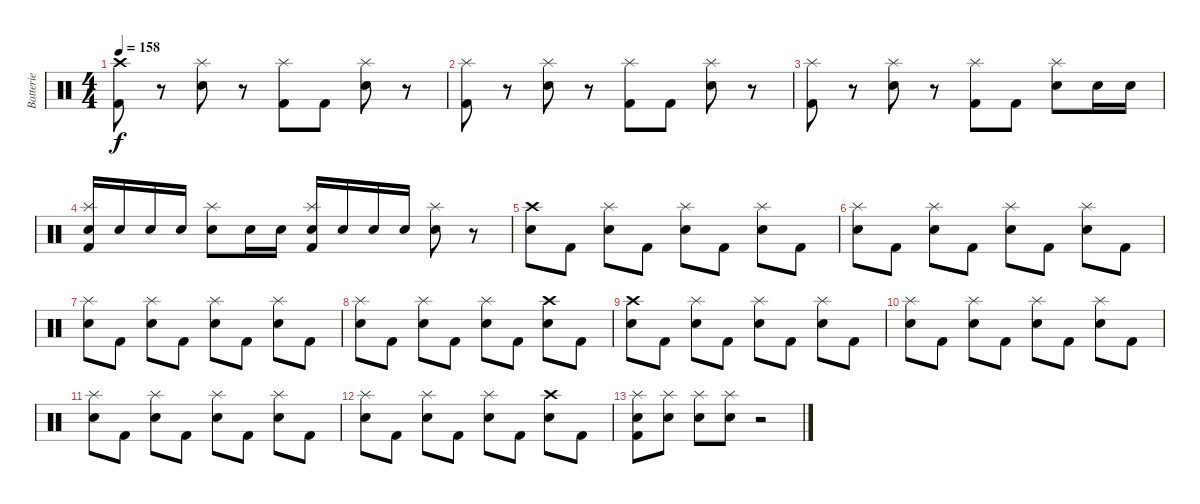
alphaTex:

\track ("Batterie" "Batterie") {instrument percussion}
\staff {score}
\articulation defaults
\ts (4 4)
\tempo 158
\clef neutral
\ks c
("Crash high (hit)" "Kick (hit) 2").8{dy f} r.8 ("Splash (hit)" "Electric Snare (hit)").8 r.8 ("Splash (hit)" "Kick (hit) 2").8 "Kick (hit) 2".8 ("Splash (hit)" "Electric Snare (hit)").8 r.8 |
("Splash (hit)" "Kick (hit) 2").8 r.8 ("Splash (hit)" "Electric Snare (hit)").8 r.8 ("Splash (hit)" "Kick (hit) 2").8 "Kick (hit) 2".8 ("Splash (hit)" "Electric Snare (hit)").8 r.8 |
("Splash (hit)" "Kick (hit) 2").8 r.8 ("Splash (hit)" "Electric Snare (hit)").8 r.8 ("Splash (hit)" "Kick (hit) 2").8 "Kick (hit) 2".8 ("Splash (hit)" "Electric Snare (hit)").8 "Electric Snare (hit)".16 "Electric Snare (hit)".16 |
("Splash (hit)" "Electric Snare (hit)" "Kick (hit) 2").16 "Electric Snare (hit)".16 "Electric Snare (hit)".16 "Electric Snare (hit)".16 ("Splash (hit)" "Electric Snare (hit)").8 "Electric Snare (hit)".16 "Electric Snare (hit)".16 ("Splash (hit)" "Electric Snare (hit)" "Kick (hit) 2").16 "Electric Snare (hit)".16 "Electric Snare (hit)".16 "Electric Snare (hit)".16 ("Splash (hit)" "Electric Snare (hit)").8 r.8 |
("Crash high (hit)" "Electric Snare (hit)").8 "Kick (hit) 2".8 ("Splash (hit)" "Electric Snare (hit)").8 "Kick (hit) 2".8 ("Splash (hit)" "Electric Snare (hit)").8 "Kick (hit) 2".8 ("Splash (hit)" "Electric Snare (hit)").8 "Kick (hit) 2".8 |
("Splash (hit)" "Electric Snare (hit)").8 "Kick (hit) 2".8 ("Splash (hit)" "Electric Snare (hit)").8 "Kick (hit) 2".8 ("Splash (hit)" "Electric Snare (hit)").8 "Kick (hit) 2".8 ("Splash (hit)" "Electric Snare (hit)").8 "Kick (hit) 2".8 |
("Splash (hit)" "Electric Snare (hit)").8 "Kick (hit) 2".8 ("Splash (hit)" "Electric Snare (hit)").8 "Kick (hit) 2".8 ("Splash (hit)" "Electric Snare (hit)").8 "Kick (hit) 2".8 ("Splash (hit)" "Electric Snare (hit)").8 "Kick (hit) 2".8 |
("Splash (hit)" "Electric Snare (hit)").8 "Kick (hit) 2".8 ("Splash (hit)" "Electric Snare (hit)").8 "Kick (hit) 2".8 ("Splash (hit)" "Electric Snare (hit)").8 "Kick (hit) 2".8 ("Crash high (hit)" "Electric Snare (hit)").8 "Kick (hit) 2".8 |
("Crash high (hit)" "Electric Snare (hit)").8 "Kick (hit) 2".8 ("Splash (hit)" "Electric Snare (hit)").8 "Kick (hit) 2".8 ("Splash (hit)" "Electric Snare (hit)").8 "Kick (hit) 2".8 ("Splash (hit)" "Electric Snare (hit)").8 "Kick (hit) 2".8 |
("Splash (hit)" "Electric Snare (hit)").8 "Kick (hit) 2".8 ("Splash (hit)" "Electric Snare (hit)").8 "Kick (hit) 2".8 ("Splash (hit)" "Electric Snare (hit)").8 "Kick (hit) 2".8 ("Splash (hit)" "Electric Snare (hit)").8 "Kick (hit) 2".8 |
("Splash (hit)" "Electric Snare (hit)").8 "Kick (hit) 2".8 ("Splash (hit)" "Electric Snare (hit)").8 "Kick (hit) 2".8 ("Splash (hit)" "Electric Snare (hit)").8 "Kick (hit) 2".8 ("Splash (hit)" "Electric Snare (hit)").8 "Kick (hit) 2".8 |
("Splash (hit)" "Electric Snare (hit)").8 "Kick (hit) 2".8 ("Splash (hit)" "Electric Snare (hit)").8 "Kick (hit) 2".8 ("Splash (hit)" "Electric Snare (hit)").8 "Kick (hit) 2".8 ("Crash high (hit)" "Electric Snare (hit)").8 "Kick (hit) 2".8 |
("Splash (hit)" "Electric Snare (hit)" "Kick (hit) 2").8 ("Splash (hit)" "Electric Snare (hit)").8 ("Splash (hit)" "Electric Snare (hit)").8 ("Splash (hit)" "Electric Snare (hit)").8 r.2
